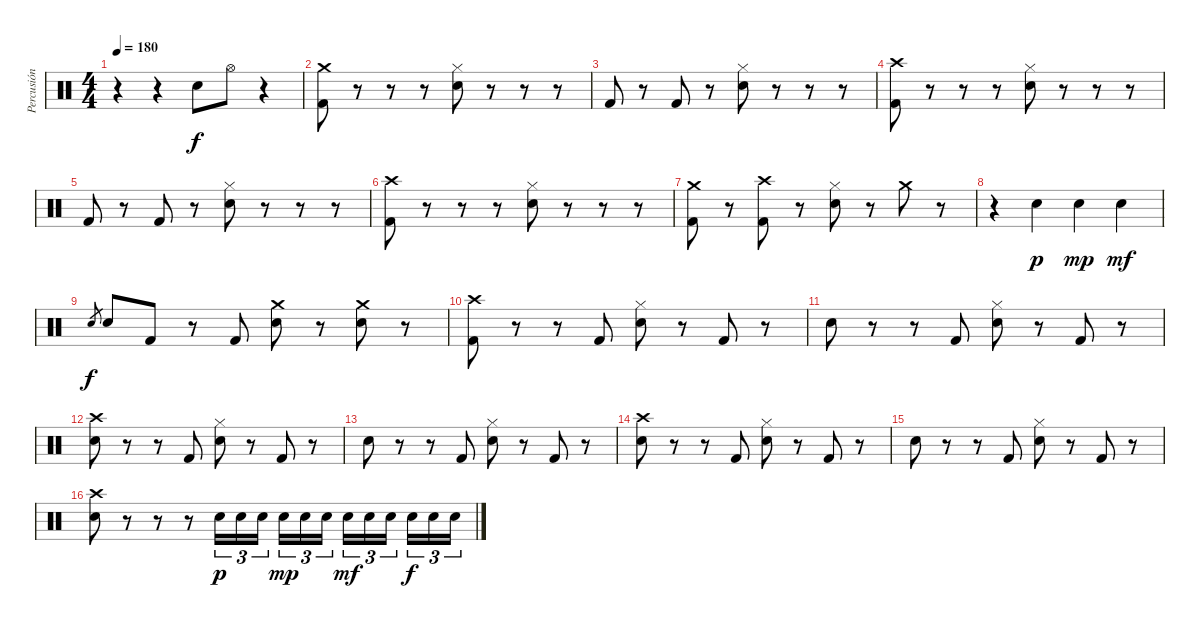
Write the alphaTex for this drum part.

\track ("Percusión" "Percusión") {instrument percussion}
\staff {score}
\articulation defaults
\ts (4 4)
\tempo 180
\clef neutral
\ks c
r.4{dy f} r.4 "Snare (hit) 2".8 "Hi-Hat (open)".8 r.4 |
("Crash medium (hit)" "Kick (hit) 2").8 r.8 r.8 r.8 ("Hi-Hat (closed)" "Snare (hit) 2").8 r.8 r.8 r.8 |
"Kick (hit) 2".8 r.8 "Kick (hit) 2".8 r.8 ("Hi-Hat (closed)" "Snare (hit) 2").8 r.8 r.8 r.8 |
("Crash high (hit)" "Kick (hit) 2").8 r.8 r.8 r.8 ("Hi-Hat (closed)" "Snare (hit) 2").8 r.8 r.8 r.8 |
"Kick (hit) 2".8 r.8 "Kick (hit) 2".8 r.8 ("Hi-Hat (closed)" "Snare (hit) 2").8 r.8 r.8 r.8 |
("Crash high (hit)" "Kick (hit) 2").8 r.8 r.8 r.8 ("Hi-Hat (closed)" "Snare (hit) 2").8 r.8 r.8 r.8 |
("Crash medium (hit)" "Kick (hit) 2").8 r.8 ("Crash high (hit)" "Kick (hit) 2").8 r.8 ("Hi-Hat (closed)" "Snare (hit) 2").8 r.8 "Crash medium (hit)".8 r.8 |
r.4 "Snare (hit) 2".4{dy p} "Snare (hit) 2".4{dy mp} "Snare (hit) 2".4{dy mf} |
"Snare (hit) 2".8{gr dy f} "Snare (hit) 2".8 "Kick (hit) 2".8 r.8 "Kick (hit) 2".8 ("Crash medium (hit)" "Snare (hit) 2").8 r.8 ("Crash medium (hit)" "Snare (hit) 2").8 r.8 |
("Crash high (hit)" "Kick (hit) 2").8 r.8 r.8 "Kick (hit) 2".8 ("Hi-Hat (closed)" "Snare (hit) 2").8 r.8 "Kick (hit) 2".8 r.8 |
"Snare (hit) 2".8 r.8 r.8 "Kick (hit) 2".8 ("Hi-Hat (closed)" "Snare (hit) 2").8 r.8 "Kick (hit) 2".8 r.8 |
("Crash high (hit)" "Snare (hit) 2").8 r.8 r.8 "Kick (hit) 2".8 ("Hi-Hat (closed)" "Snare (hit) 2").8 r.8 "Kick (hit) 2".8 r.8 |
"Snare (hit) 2".8 r.8 r.8 "Kick (hit) 2".8 ("Hi-Hat (closed)" "Snare (hit) 2").8 r.8 "Kick (hit) 2".8 r.8 |
("Crash high (hit)" "Snare (hit) 2").8 r.8 r.8 "Kick (hit) 2".8 ("Hi-Hat (closed)" "Snare (hit) 2").8 r.8 "Kick (hit) 2".8 r.8 |
"Snare (hit) 2".8 r.8 r.8 "Kick (hit) 2".8 ("Hi-Hat (closed)" "Snare (hit) 2").8 r.8 "Kick (hit) 2".8 r.8 |
("Crash high (hit)" "Snare (hit) 2").8 r.8 r.8 r.8 "Snare (hit) 2".16{tu (3 2) dy p} "Snare (hit) 2".16{tu (3 2)} "Snare (hit) 2".16{tu (3 2)} "Snare (hit) 2".16{tu (3 2) dy mp} "Snare (hit) 2".16{tu (3 2)} "Snare (hit) 2".16{tu (3 2)} "Snare (hit) 2".16{tu (3 2) dy mf} "Snare (hit) 2".16{tu (3 2)} "Snare (hit) 2".16{tu (3 2)} "Snare (hit) 2".16{tu (3 2) dy f} "Snare (hit) 2".16{tu (3 2)} "Snare (hit) 2".16{tu (3 2)}
